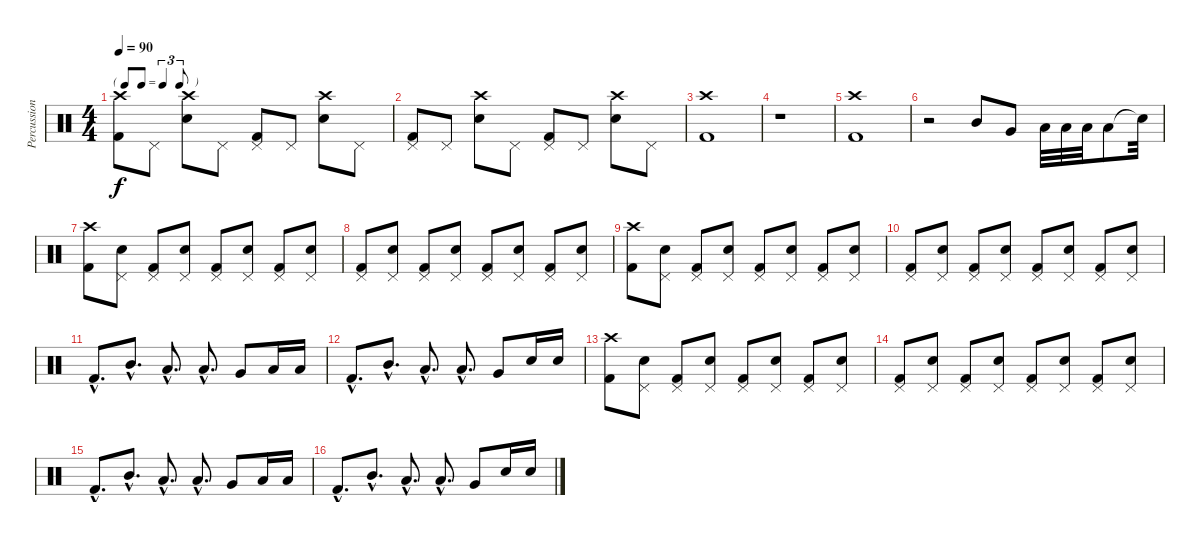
\track ("Percussion" "Percussion") {instrument percussion}
\staff {score}
\articulation defaults
\ts (4 4)
\tf triplet8th
\tempo 90
\clef neutral
\ks c
("Crash high (hit)" "Kick (hit) 2").8{dy f} "Pedal Hi-Hat (hit)".8 ("Crash high (hit)" "Snare (hit) 2").8 "Pedal Hi-Hat (hit)".8 ("Pedal Hi-Hat (hit)" "Kick (hit) 2").8 "Pedal Hi-Hat (hit)".8 ("Crash high (hit)" "Snare (hit) 2").8 "Pedal Hi-Hat (hit)".8 |
("Pedal Hi-Hat (hit)" "Kick (hit) 2").8 "Pedal Hi-Hat (hit)".8 ("Crash high (hit)" "Snare (hit) 2").8 "Pedal Hi-Hat (hit)".8 ("Pedal Hi-Hat (hit)" "Kick (hit) 2").8 "Pedal Hi-Hat (hit)".8 ("Crash high (hit)" "Snare (hit) 2").8 "Pedal Hi-Hat (hit)".8 |
("Crash high (hit)" "Kick (hit) 2").1 |
r.1 |
("Crash high (hit)" "Kick (hit) 2").1 |
r.2 "Mid Tom (hit)".8 "Very Low Tom (hit)".8 "Low Tom (hit)".32 "Low Tom (hit)".32 "Low Tom (hit)".32 "Low Tom (hit)".8 "Snare (hit)"{t}.32 |
("Crash high (hit)" "Kick (hit) 2").8 ("Pedal Hi-Hat (hit)" "Snare (hit) 2").8 ("Pedal Hi-Hat (hit)" "Kick (hit) 2").8 ("Pedal Hi-Hat (hit)" "Snare (hit) 2").8 ("Pedal Hi-Hat (hit)" "Kick (hit) 2").8 ("Pedal Hi-Hat (hit)" "Snare (hit) 2").8 ("Pedal Hi-Hat (hit)" "Kick (hit) 2").8 ("Pedal Hi-Hat (hit)" "Snare (hit) 2").8 |
("Pedal Hi-Hat (hit)" "Kick (hit) 2").8 ("Pedal Hi-Hat (hit)" "Snare (hit) 2").8 ("Pedal Hi-Hat (hit)" "Kick (hit) 2").8 ("Pedal Hi-Hat (hit)" "Snare (hit) 2").8 ("Pedal Hi-Hat (hit)" "Kick (hit) 2").8 ("Pedal Hi-Hat (hit)" "Snare (hit) 2").8 ("Pedal Hi-Hat (hit)" "Kick (hit) 2").8 ("Pedal Hi-Hat (hit)" "Snare (hit) 2").8 |
("Crash high (hit)" "Kick (hit) 2").8 ("Pedal Hi-Hat (hit)" "Snare (hit) 2").8 ("Pedal Hi-Hat (hit)" "Kick (hit) 2").8 ("Pedal Hi-Hat (hit)" "Snare (hit) 2").8 ("Pedal Hi-Hat (hit)" "Kick (hit) 2").8 ("Pedal Hi-Hat (hit)" "Snare (hit) 2").8 ("Pedal Hi-Hat (hit)" "Kick (hit) 2").8 ("Pedal Hi-Hat (hit)" "Snare (hit) 2").8 |
("Pedal Hi-Hat (hit)" "Kick (hit) 2").8 ("Pedal Hi-Hat (hit)" "Snare (hit) 2").8 ("Pedal Hi-Hat (hit)" "Kick (hit) 2").8 ("Pedal Hi-Hat (hit)" "Snare (hit) 2").8 ("Pedal Hi-Hat (hit)" "Kick (hit) 2").8 ("Pedal Hi-Hat (hit)" "Snare (hit) 2").8 ("Pedal Hi-Hat (hit)" "Kick (hit) 2").8 ("Pedal Hi-Hat (hit)" "Snare (hit) 2").8 |
"Kick (hit) 2"{hac}.8{d} "Mid Tom (hit)"{hac}.8{d} "Low Tom (hit)"{hac}.8{d} "Low Tom (hit)"{hac}.8{d} "Very Low Tom (hit)".8 "Low Floor Tom (hit)".16 "Low Floor Tom (hit)".16 |
"Kick (hit) 2"{hac}.8{d} "Mid Tom (hit)"{hac}.8{d} "Low Tom (hit)"{hac}.8{d} "Low Tom (hit)"{hac}.8{d} "Very Low Tom (hit)".8 "Snare (hit) 2".16 "Snare (hit) 2".16 |
("Crash high (hit)" "Kick (hit) 2").8 ("Pedal Hi-Hat (hit)" "Snare (hit) 2").8 ("Pedal Hi-Hat (hit)" "Kick (hit) 2").8 ("Pedal Hi-Hat (hit)" "Snare (hit) 2").8 ("Pedal Hi-Hat (hit)" "Kick (hit) 2").8 ("Pedal Hi-Hat (hit)" "Snare (hit) 2").8 ("Pedal Hi-Hat (hit)" "Kick (hit) 2").8 ("Pedal Hi-Hat (hit)" "Snare (hit) 2").8 |
("Pedal Hi-Hat (hit)" "Kick (hit) 2").8 ("Pedal Hi-Hat (hit)" "Snare (hit) 2").8 ("Pedal Hi-Hat (hit)" "Kick (hit) 2").8 ("Pedal Hi-Hat (hit)" "Snare (hit) 2").8 ("Pedal Hi-Hat (hit)" "Kick (hit) 2").8 ("Pedal Hi-Hat (hit)" "Snare (hit) 2").8 ("Pedal Hi-Hat (hit)" "Kick (hit) 2").8 ("Pedal Hi-Hat (hit)" "Snare (hit) 2").8 |
"Kick (hit) 2"{hac}.8{d} "Mid Tom (hit)"{hac}.8{d} "Low Tom (hit)"{hac}.8{d} "Low Tom (hit)"{hac}.8{d} "Very Low Tom (hit)".8 "Low Floor Tom (hit)".16 "Low Floor Tom (hit)".16 |
"Kick (hit) 2"{hac}.8{d} "Mid Tom (hit)"{hac}.8{d} "Low Tom (hit)"{hac}.8{d} "Low Tom (hit)"{hac}.8{d} "Very Low Tom (hit)".8 "Snare (hit) 2".16 "Snare (hit) 2".16
